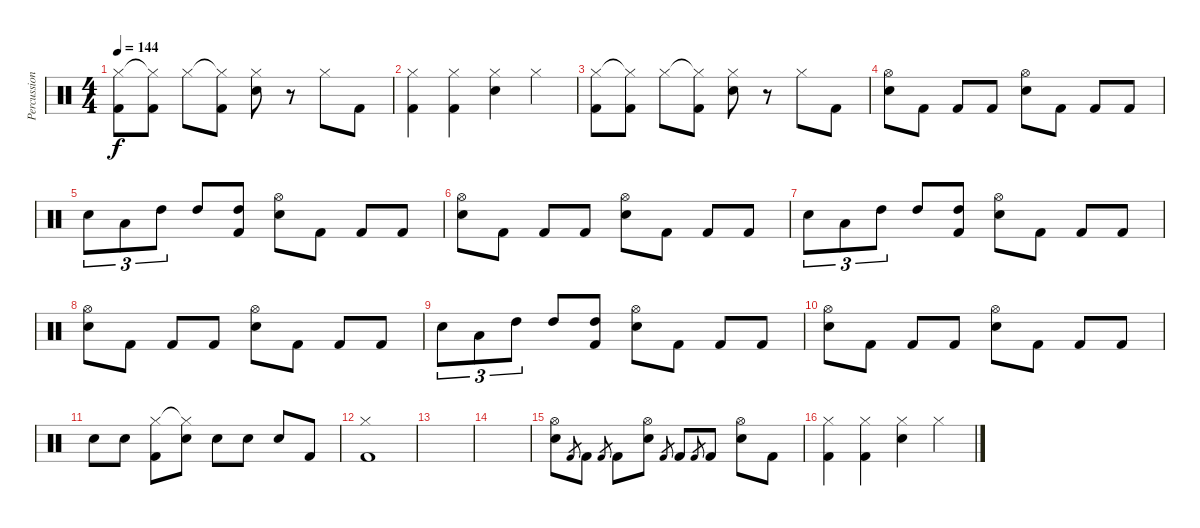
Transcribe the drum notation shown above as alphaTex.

\track ("Percussion" "Percussion") {instrument percussion}
\staff {score}
\articulation defaults
\ts (4 4)
\tempo 144
\clef neutral
\ks c
("Hi-Hat (closed)" "Kick (hit) 2").8{dy f} ("Hi-Hat (closed)"{t} "Kick (hit) 2").8 "Hi-Hat (closed)".8 ("Hi-Hat (closed)"{t} "Kick (hit) 2").8 ("Hi-Hat (closed)" "Snare (hit) 2").8 r.8 "Hi-Hat (closed)".8 "Kick (hit) 2".8 |
("Hi-Hat (closed)" "Kick (hit) 2").4 ("Hi-Hat (closed)" "Kick (hit) 2").4 ("Hi-Hat (closed)" "Snare (hit) 2").4 "Hi-Hat (closed)".4 |
("Hi-Hat (closed)" "Kick (hit) 2").8 ("Hi-Hat (closed)"{t} "Kick (hit) 2").8 "Hi-Hat (closed)".8 ("Hi-Hat (closed)"{t} "Kick (hit) 2").8 ("Hi-Hat (closed)" "Snare (hit) 2").8 r.8 "Hi-Hat (closed)".8 "Kick (hit) 2".8 |
("Hi-Hat (open)" "Snare (hit) 2").8 "Kick (hit) 2".8 "Kick (hit) 2".8 "Kick (hit) 2".8 ("Hi-Hat (open)" "Snare (hit) 2").8 "Kick (hit) 2".8 "Kick (hit) 2".8 "Kick (hit) 2".8 |
"Snare (hit) 2".8{tu (3 2)} "Low Tom (hit)".8{tu (3 2)} "High Tom (hit)".8{tu (3 2)} "High Tom (hit)".8 ("High Tom (hit)" "Kick (hit) 2").8 ("Hi-Hat (open)" "Snare (hit) 2").8 "Kick (hit) 2".8 "Kick (hit) 2".8 "Kick (hit) 2".8 |
("Hi-Hat (open)" "Snare (hit) 2").8 "Kick (hit) 2".8 "Kick (hit) 2".8 "Kick (hit) 2".8 ("Hi-Hat (open)" "Snare (hit) 2").8 "Kick (hit) 2".8 "Kick (hit) 2".8 "Kick (hit) 2".8 |
"Snare (hit) 2".8{tu (3 2)} "Low Tom (hit)".8{tu (3 2)} "High Tom (hit)".8{tu (3 2)} "High Tom (hit)".8 ("High Tom (hit)" "Kick (hit) 2").8 ("Hi-Hat (open)" "Snare (hit) 2").8 "Kick (hit) 2".8 "Kick (hit) 2".8 "Kick (hit) 2".8 |
("Hi-Hat (open)" "Snare (hit) 2").8 "Kick (hit) 2".8 "Kick (hit) 2".8 "Kick (hit) 2".8 ("Hi-Hat (open)" "Snare (hit) 2").8 "Kick (hit) 2".8 "Kick (hit) 2".8 "Kick (hit) 2".8 |
"Snare (hit) 2".8{tu (3 2)} "Low Tom (hit)".8{tu (3 2)} "High Tom (hit)".8{tu (3 2)} "High Tom (hit)".8 ("High Tom (hit)" "Kick (hit) 2").8 ("Hi-Hat (open)" "Snare (hit) 2").8 "Kick (hit) 2".8 "Kick (hit) 2".8 "Kick (hit) 2".8 |
("Hi-Hat (open)" "Snare (hit) 2").8 "Kick (hit) 2".8 "Kick (hit) 2".8 "Kick (hit) 2".8 ("Hi-Hat (open)" "Snare (hit) 2").8 "Kick (hit) 2".8 "Kick (hit) 2".8 "Kick (hit) 2".8 |
"Snare (hit) 2".8 "Snare (hit) 2".8 ("Hi-Hat (closed)" "Kick (hit) 2").8 ("Hi-Hat (closed)"{t} "Snare (hit) 2").8 "Snare (hit) 2".8 "Snare (hit) 2".8 "Snare (hit) 2".8 "Kick (hit) 2".8 |
("Hi-Hat (closed)" "Kick (hit) 2").1 |
|
|
("Hi-Hat (open)" "Snare (hit) 2").8 "Kick (hit) 2".8{gr} "Kick (hit) 2".8 "Kick (hit) 2".8{gr} "Kick (hit) 2".8 ("Hi-Hat (open)" "Snare (hit) 2").8 "Kick (hit) 2".8{gr} "Kick (hit) 2".8 "Kick (hit) 2".8{gr} "Kick (hit) 2".8 ("Hi-Hat (open)" "Snare (hit) 2").8 "Kick (hit) 2".8 |
("Hi-Hat (closed)" "Kick (hit) 2").4 ("Hi-Hat (closed)" "Kick (hit) 2").4 ("Hi-Hat (closed)" "Snare (hit) 2").4 "Hi-Hat (closed)".4
